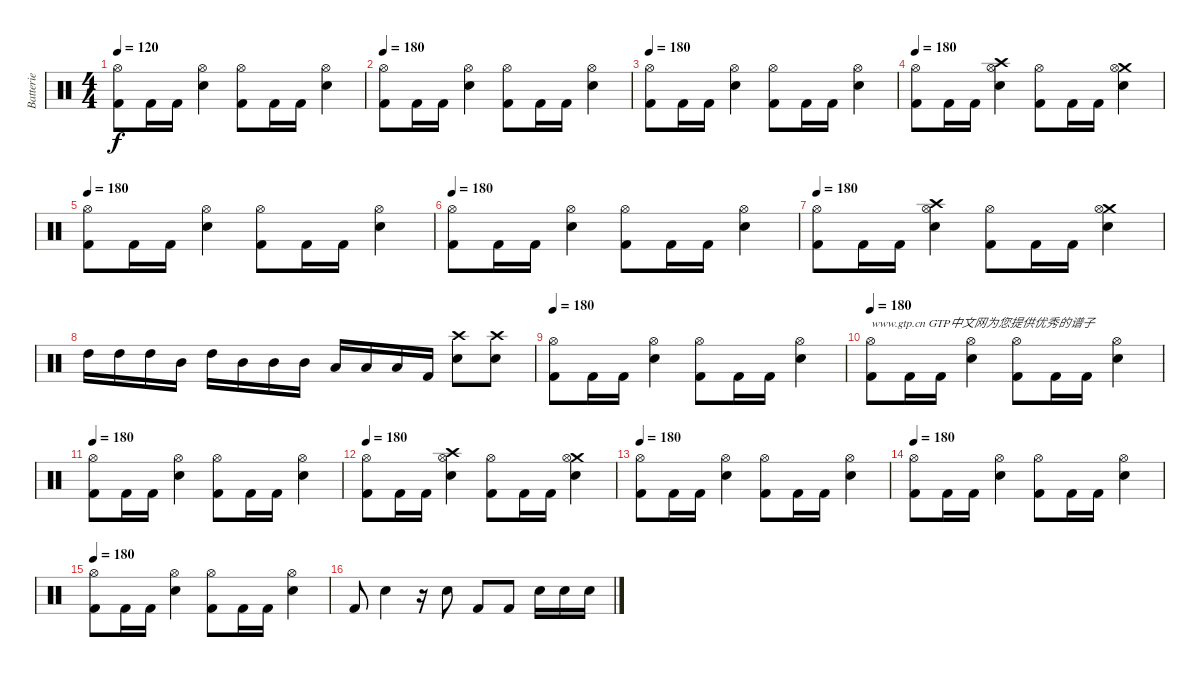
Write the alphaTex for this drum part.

\track ("Batterie" "Batterie") {instrument percussion}
\staff {score}
\articulation defaults
\ts (4 4)
\tempo 120
\tempo 190
\tempo 180
\tempo 120
\clef neutral
\ks c
("Hi-Hat (open)" "Kick (hit) 2").8{dy f} "Kick (hit) 2".16 "Kick (hit) 2".16 ("Hi-Hat (open)" "Electric Snare (hit)").4 ("Hi-Hat (open)" "Kick (hit) 2").8 "Kick (hit) 2".16 "Kick (hit) 2".16 ("Hi-Hat (open)" "Electric Snare (hit)").4 |
\tempo 180
("Hi-Hat (open)" "Kick (hit) 2").8 "Kick (hit) 2".16 "Kick (hit) 2".16 ("Hi-Hat (open)" "Electric Snare (hit)").4 ("Hi-Hat (open)" "Kick (hit) 2").8 "Kick (hit) 2".16 "Kick (hit) 2".16 ("Hi-Hat (open)" "Electric Snare (hit)").4 |
\tempo 180
("Hi-Hat (open)" "Kick (hit) 2").8 "Kick (hit) 2".16 "Kick (hit) 2".16 ("Hi-Hat (open)" "Electric Snare (hit)").4 ("Hi-Hat (open)" "Kick (hit) 2").8 "Kick (hit) 2".16 "Kick (hit) 2".16 ("Hi-Hat (open)" "Electric Snare (hit)").4 |
\tempo 180
("Hi-Hat (open)" "Kick (hit) 2").8 "Kick (hit) 2".16 "Kick (hit) 2".16 ("Crash high (hit)" "Hi-Hat (open)" "Electric Snare (hit)").4 ("Hi-Hat (open)" "Kick (hit) 2").8 "Kick (hit) 2".16 "Kick (hit) 2".16 ("Crash medium (hit)" "Hi-Hat (open)" "Electric Snare (hit)").4 |
\tempo 180
("Hi-Hat (open)" "Kick (hit) 2").8 "Kick (hit) 2".16 "Kick (hit) 2".16 ("Hi-Hat (open)" "Electric Snare (hit)").4 ("Hi-Hat (open)" "Kick (hit) 2").8 "Kick (hit) 2".16 "Kick (hit) 2".16 ("Hi-Hat (open)" "Electric Snare (hit)").4 |
\tempo 180
("Hi-Hat (open)" "Kick (hit) 2").8 "Kick (hit) 2".16 "Kick (hit) 2".16 ("Hi-Hat (open)" "Electric Snare (hit)").4 ("Hi-Hat (open)" "Kick (hit) 2").8 "Kick (hit) 2".16 "Kick (hit) 2".16 ("Hi-Hat (open)" "Electric Snare (hit)").4 |
\tempo 180
("Hi-Hat (open)" "Kick (hit) 2").8 "Kick (hit) 2".16 "Kick (hit) 2".16 ("Crash high (hit)" "Hi-Hat (open)" "Electric Snare (hit)").4 ("Hi-Hat (open)" "Kick (hit) 2").8 "Kick (hit) 2".16 "Kick (hit) 2".16 ("Crash medium (hit)" "Hi-Hat (open)" "Electric Snare (hit)").4 |
"High Tom (hit)".16 "High Tom (hit)".16 "High Tom (hit)".16 "Mid Tom (hit)".16 "High Tom (hit)".16 "Mid Tom (hit)".16 "Mid Tom (hit)".16 "Mid Tom (hit)".16 "Low Tom (hit)".16 "Low Tom (hit)".16 "Low Tom (hit)".16 "Kick (hit) 2".16 ("Crash high (hit)" "Electric Snare (hit)").8 ("Crash high (hit)" "Electric Snare (hit)").8 |
\tempo 180
("Hi-Hat (open)" "Kick (hit) 2").8 "Kick (hit) 2".16 "Kick (hit) 2".16 ("Hi-Hat (open)" "Electric Snare (hit)").4 ("Hi-Hat (open)" "Kick (hit) 2").8 "Kick (hit) 2".16 "Kick (hit) 2".16 ("Hi-Hat (open)" "Electric Snare (hit)").4 |
\tempo 180
("Hi-Hat (open)" "Kick (hit) 2").8{txt "www.gtp.cn GTP中文网为您提供优秀的谱子"} "Kick (hit) 2".16 "Kick (hit) 2".16 ("Hi-Hat (open)" "Electric Snare (hit)").4 ("Hi-Hat (open)" "Kick (hit) 2").8 "Kick (hit) 2".16 "Kick (hit) 2".16 ("Hi-Hat (open)" "Electric Snare (hit)").4 |
\tempo 180
("Hi-Hat (open)" "Kick (hit) 2").8 "Kick (hit) 2".16 "Kick (hit) 2".16 ("Hi-Hat (open)" "Electric Snare (hit)").4 ("Hi-Hat (open)" "Kick (hit) 2").8 "Kick (hit) 2".16 "Kick (hit) 2".16 ("Hi-Hat (open)" "Electric Snare (hit)").4 |
\tempo 180
("Hi-Hat (open)" "Kick (hit) 2").8 "Kick (hit) 2".16 "Kick (hit) 2".16 ("Crash high (hit)" "Hi-Hat (open)" "Electric Snare (hit)").4 ("Hi-Hat (open)" "Kick (hit) 2").8 "Kick (hit) 2".16 "Kick (hit) 2".16 ("Crash medium (hit)" "Hi-Hat (open)" "Electric Snare (hit)").4 |
\tempo 180
("Hi-Hat (open)" "Kick (hit) 2").8 "Kick (hit) 2".16 "Kick (hit) 2".16 ("Hi-Hat (open)" "Electric Snare (hit)").4 ("Hi-Hat (open)" "Kick (hit) 2").8 "Kick (hit) 2".16 "Kick (hit) 2".16 ("Hi-Hat (open)" "Electric Snare (hit)").4 |
\tempo 180
("Hi-Hat (open)" "Kick (hit) 2").8 "Kick (hit) 2".16 "Kick (hit) 2".16 ("Hi-Hat (open)" "Electric Snare (hit)").4 ("Hi-Hat (open)" "Kick (hit) 2").8 "Kick (hit) 2".16 "Kick (hit) 2".16 ("Hi-Hat (open)" "Electric Snare (hit)").4 |
\tempo 180
("Hi-Hat (open)" "Kick (hit) 2").8 "Kick (hit) 2".16 "Kick (hit) 2".16 ("Hi-Hat (open)" "Electric Snare (hit)").4 ("Hi-Hat (open)" "Kick (hit) 2").8 "Kick (hit) 2".16 "Kick (hit) 2".16 ("Hi-Hat (open)" "Electric Snare (hit)").4 |
"Kick (hit) 2".8 "Electric Snare (hit)".4 r.16 "Electric Snare (hit)".8 "Kick (hit) 2".8 "Kick (hit) 2".8 "Electric Snare (hit)".16 "Electric Snare (hit)".16 "Electric Snare (hit)".16
